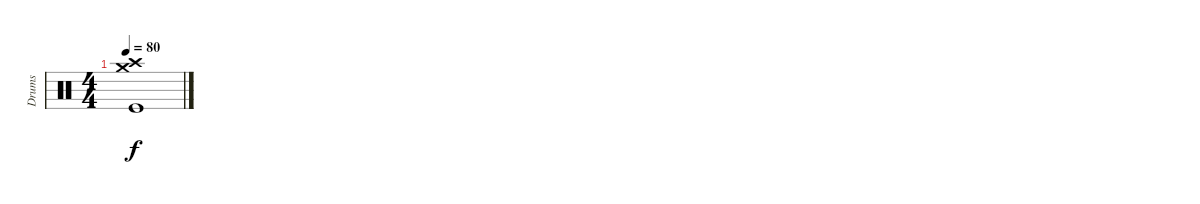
\track ("Drums" "Drums") {instrument percussion}
\staff {score}
\articulation defaults
\ts (4 4)
\tempo 80
\clef neutral
\ks c
("Crash high (hit)" "Crash medium (hit)" "Kick (hit)").1{dy f}
